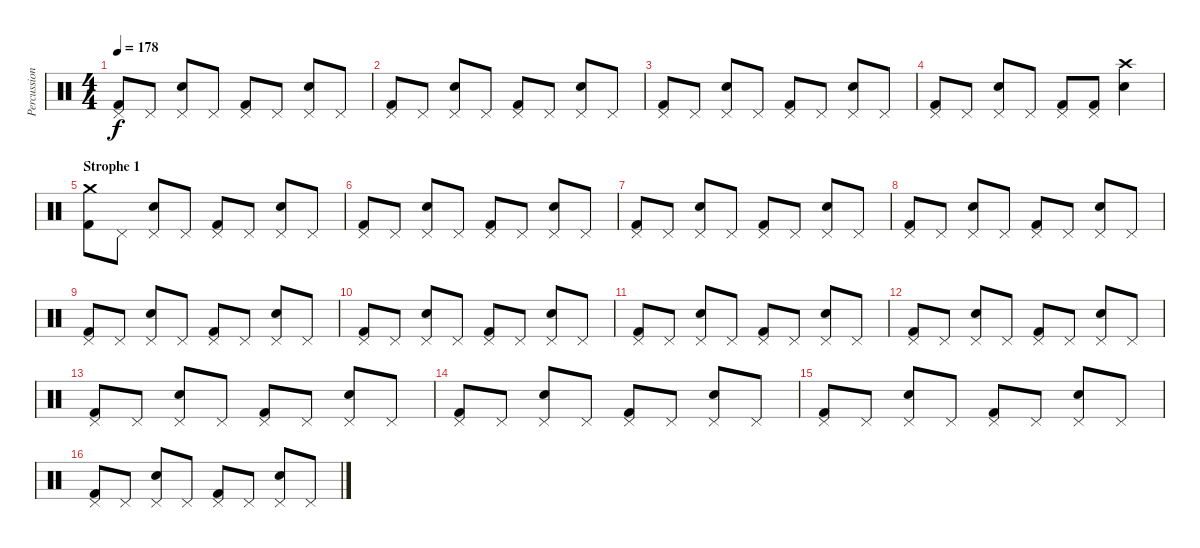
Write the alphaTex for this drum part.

\track ("Percussion" "Percussion") {instrument percussion}
\staff {score}
\articulation defaults
\ts (4 4)
\tempo 178
\clef neutral
\ks c
("Pedal Hi-Hat (hit)" "Kick (hit) 2").8{dy f} "Pedal Hi-Hat (hit)".8 ("Pedal Hi-Hat (hit)" "Snare (hit) 2").8 "Pedal Hi-Hat (hit)".8 ("Pedal Hi-Hat (hit)" "Kick (hit) 2").8 "Pedal Hi-Hat (hit)".8 ("Pedal Hi-Hat (hit)" "Snare (hit) 2").8 "Pedal Hi-Hat (hit)".8 |
("Pedal Hi-Hat (hit)" "Kick (hit) 2").8 "Pedal Hi-Hat (hit)".8 ("Pedal Hi-Hat (hit)" "Snare (hit) 2").8 "Pedal Hi-Hat (hit)".8 ("Pedal Hi-Hat (hit)" "Kick (hit) 2").8 "Pedal Hi-Hat (hit)".8 ("Pedal Hi-Hat (hit)" "Snare (hit) 2").8 "Pedal Hi-Hat (hit)".8 |
("Pedal Hi-Hat (hit)" "Kick (hit) 2").8 "Pedal Hi-Hat (hit)".8 ("Pedal Hi-Hat (hit)" "Snare (hit) 2").8 "Pedal Hi-Hat (hit)".8 ("Pedal Hi-Hat (hit)" "Kick (hit) 2").8 "Pedal Hi-Hat (hit)".8 ("Pedal Hi-Hat (hit)" "Snare (hit) 2").8 "Pedal Hi-Hat (hit)".8 |
("Pedal Hi-Hat (hit)" "Kick (hit) 2").8 "Pedal Hi-Hat (hit)".8 ("Pedal Hi-Hat (hit)" "Snare (hit) 2").8 "Pedal Hi-Hat (hit)".8 ("Pedal Hi-Hat (hit)" "Kick (hit) 2").8 ("Pedal Hi-Hat (hit)" "Kick (hit) 2").8 ("Crash high (hit)" "Snare (hit) 2").4 |
\section ("" "Strophe 1")
("Crash medium (hit)" "Kick (hit) 2").8 "Pedal Hi-Hat (hit)".8 ("Pedal Hi-Hat (hit)" "Snare (hit) 2").8 "Pedal Hi-Hat (hit)".8 ("Pedal Hi-Hat (hit)" "Kick (hit) 2").8 "Pedal Hi-Hat (hit)".8 ("Pedal Hi-Hat (hit)" "Snare (hit) 2").8 "Pedal Hi-Hat (hit)".8 |
("Pedal Hi-Hat (hit)" "Kick (hit) 2").8 "Pedal Hi-Hat (hit)".8 ("Pedal Hi-Hat (hit)" "Snare (hit) 2").8 "Pedal Hi-Hat (hit)".8 ("Pedal Hi-Hat (hit)" "Kick (hit) 2").8 "Pedal Hi-Hat (hit)".8 ("Pedal Hi-Hat (hit)" "Snare (hit) 2").8 "Pedal Hi-Hat (hit)".8 |
("Pedal Hi-Hat (hit)" "Kick (hit) 2").8 "Pedal Hi-Hat (hit)".8 ("Pedal Hi-Hat (hit)" "Snare (hit) 2").8 "Pedal Hi-Hat (hit)".8 ("Pedal Hi-Hat (hit)" "Kick (hit) 2").8 "Pedal Hi-Hat (hit)".8 ("Pedal Hi-Hat (hit)" "Snare (hit) 2").8 "Pedal Hi-Hat (hit)".8 |
("Pedal Hi-Hat (hit)" "Kick (hit) 2").8 "Pedal Hi-Hat (hit)".8 ("Pedal Hi-Hat (hit)" "Snare (hit) 2").8 "Pedal Hi-Hat (hit)".8 ("Pedal Hi-Hat (hit)" "Kick (hit) 2").8 "Pedal Hi-Hat (hit)".8 ("Pedal Hi-Hat (hit)" "Snare (hit) 2").8 "Pedal Hi-Hat (hit)".8 |
("Pedal Hi-Hat (hit)" "Kick (hit) 2").8 "Pedal Hi-Hat (hit)".8 ("Pedal Hi-Hat (hit)" "Snare (hit) 2").8 "Pedal Hi-Hat (hit)".8 ("Pedal Hi-Hat (hit)" "Kick (hit) 2").8 "Pedal Hi-Hat (hit)".8 ("Pedal Hi-Hat (hit)" "Snare (hit) 2").8 "Pedal Hi-Hat (hit)".8 |
("Pedal Hi-Hat (hit)" "Kick (hit) 2").8 "Pedal Hi-Hat (hit)".8 ("Pedal Hi-Hat (hit)" "Snare (hit) 2").8 "Pedal Hi-Hat (hit)".8 ("Pedal Hi-Hat (hit)" "Kick (hit) 2").8 "Pedal Hi-Hat (hit)".8 ("Pedal Hi-Hat (hit)" "Snare (hit) 2").8 "Pedal Hi-Hat (hit)".8 |
("Pedal Hi-Hat (hit)" "Kick (hit) 2").8 "Pedal Hi-Hat (hit)".8 ("Pedal Hi-Hat (hit)" "Snare (hit) 2").8 "Pedal Hi-Hat (hit)".8 ("Pedal Hi-Hat (hit)" "Kick (hit) 2").8 "Pedal Hi-Hat (hit)".8 ("Pedal Hi-Hat (hit)" "Snare (hit) 2").8 "Pedal Hi-Hat (hit)".8 |
("Pedal Hi-Hat (hit)" "Kick (hit) 2").8 "Pedal Hi-Hat (hit)".8 ("Pedal Hi-Hat (hit)" "Snare (hit) 2").8 "Pedal Hi-Hat (hit)".8 ("Pedal Hi-Hat (hit)" "Kick (hit) 2").8 "Pedal Hi-Hat (hit)".8 ("Pedal Hi-Hat (hit)" "Snare (hit) 2").8 "Pedal Hi-Hat (hit)".8 |
("Pedal Hi-Hat (hit)" "Kick (hit) 2").8 "Pedal Hi-Hat (hit)".8 ("Pedal Hi-Hat (hit)" "Snare (hit) 2").8 "Pedal Hi-Hat (hit)".8 ("Pedal Hi-Hat (hit)" "Kick (hit) 2").8 "Pedal Hi-Hat (hit)".8 ("Pedal Hi-Hat (hit)" "Snare (hit) 2").8 "Pedal Hi-Hat (hit)".8 |
("Pedal Hi-Hat (hit)" "Kick (hit) 2").8 "Pedal Hi-Hat (hit)".8 ("Pedal Hi-Hat (hit)" "Snare (hit) 2").8 "Pedal Hi-Hat (hit)".8 ("Pedal Hi-Hat (hit)" "Kick (hit) 2").8 "Pedal Hi-Hat (hit)".8 ("Pedal Hi-Hat (hit)" "Snare (hit) 2").8 "Pedal Hi-Hat (hit)".8 |
("Pedal Hi-Hat (hit)" "Kick (hit) 2").8 "Pedal Hi-Hat (hit)".8 ("Pedal Hi-Hat (hit)" "Snare (hit) 2").8 "Pedal Hi-Hat (hit)".8 ("Pedal Hi-Hat (hit)" "Kick (hit) 2").8 "Pedal Hi-Hat (hit)".8 ("Pedal Hi-Hat (hit)" "Snare (hit) 2").8 "Pedal Hi-Hat (hit)".8 |
("Pedal Hi-Hat (hit)" "Kick (hit) 2").8 "Pedal Hi-Hat (hit)".8 ("Pedal Hi-Hat (hit)" "Snare (hit) 2").8 "Pedal Hi-Hat (hit)".8 ("Pedal Hi-Hat (hit)" "Kick (hit) 2").8 "Pedal Hi-Hat (hit)".8 ("Pedal Hi-Hat (hit)" "Snare (hit) 2").8 "Pedal Hi-Hat (hit)".8
